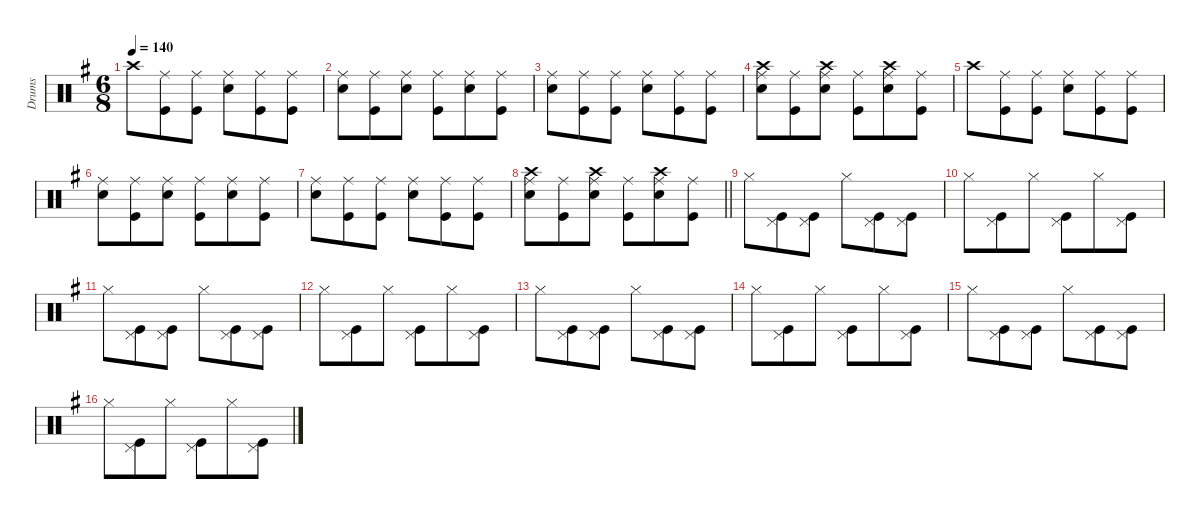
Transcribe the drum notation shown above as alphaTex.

\defaultSystemsLayout 8
\hideDynamics
\bracketExtendMode groupsimilarinstruments
\firstSystemTrackNameMode fullname
\otherSystemsTrackNameOrientation horizontal
\track ("Drums" "drm.") {defaultSystemsLayout 4 instrument percussion}
\staff {score}
\articulation defaults
\ts (6 8)
\tempo 140
\clef neutral
\ks g "Crash high (hit)"{acc forcenatural}.8{dy ff beam Down}
("Ride (middle)"{acc forcenatural} "Kick (hit)"{acc forcenatural}).8{beam Down} ("Ride (middle)"{acc forcenatural} "Kick (hit)"{acc forcenatural}).8{beam Down} ("Ride (middle)"{acc forcenatural} "Snare (hit) 2"{acc forcenatural}).8{beam Down} ("Ride (middle)"{acc forcenatural} "Kick (hit)"{acc forcenatural}).8{beam Down} ("Ride (middle)"{acc forcenatural} "Kick (hit)"{acc forcenatural}).8{beam Down} |
("Ride (middle)"{acc forcenatural} "Snare (hit) 2"{acc forcenatural}).8{beam Down} ("Ride (middle)"{acc forcenatural} "Kick (hit)"{acc forcenatural}).8{beam Down} ("Ride (middle)"{acc forcenatural} "Snare (hit) 2"{acc forcenatural}).8{beam Down} ("Ride (middle)"{acc forcenatural} "Kick (hit)"{acc forcenatural}).8{beam Down} ("Ride (middle)"{acc forcenatural} "Snare (hit) 2"{acc forcenatural}).8{beam Down} ("Ride (middle)"{acc forcenatural} "Kick (hit)"{acc forcenatural}).8{beam Down} |
("Ride (middle)"{acc forcenatural} "Snare (hit) 2"{acc forcenatural}).8{beam Down} ("Ride (middle)"{acc forcenatural} "Kick (hit)"{acc forcenatural}).8{beam Down} ("Ride (middle)"{acc forcenatural} "Kick (hit)"{acc forcenatural}).8{beam Down} ("Ride (middle)"{acc forcenatural} "Snare (hit) 2"{acc forcenatural}).8{beam Down} ("Ride (middle)"{acc forcenatural} "Kick (hit)"{acc forcenatural}).8{beam Down} ("Ride (middle)"{acc forcenatural} "Kick (hit)"{acc forcenatural}).8{beam Down} |
("Crash high (hit)"{acc forcenatural} "Ride (middle)"{acc forcenatural} "Snare (hit) 2"{acc forcenatural}).8{beam Down} ("Ride (middle)"{acc forcenatural} "Kick (hit)"{acc forcenatural}).8{beam Down} ("Crash high (hit)"{acc forcenatural} "Ride (middle)"{acc forcenatural} "Snare (hit) 2"{acc forcenatural}).8{beam Down} ("Ride (middle)"{acc forcenatural} "Kick (hit)"{acc forcenatural}).8{beam Down} ("Crash high (hit)"{acc forcenatural} "Ride (middle)"{acc forcenatural} "Snare (hit) 2"{acc forcenatural}).8{beam Down} ("Ride (middle)"{acc forcenatural} "Kick (hit)"{acc forcenatural}).8{beam Down} |
"Crash high (hit)"{acc forcenatural}.8{beam Down} ("Ride (middle)"{acc forcenatural} "Kick (hit)"{acc forcenatural}).8{beam Down} ("Ride (middle)"{acc forcenatural} "Kick (hit)"{acc forcenatural}).8{beam Down} ("Ride (middle)"{acc forcenatural} "Snare (hit) 2"{acc forcenatural}).8{beam Down} ("Ride (middle)"{acc forcenatural} "Kick (hit)"{acc forcenatural}).8{beam Down} ("Ride (middle)"{acc forcenatural} "Kick (hit)"{acc forcenatural}).8{beam Down} |
("Ride (middle)"{acc forcenatural} "Snare (hit) 2"{acc forcenatural}).8{beam Down} ("Ride (middle)"{acc forcenatural} "Kick (hit)"{acc forcenatural}).8{beam Down} ("Ride (middle)"{acc forcenatural} "Snare (hit) 2"{acc forcenatural}).8{beam Down} ("Ride (middle)"{acc forcenatural} "Kick (hit)"{acc forcenatural}).8{beam Down} ("Ride (middle)"{acc forcenatural} "Snare (hit) 2"{acc forcenatural}).8{beam Down} ("Ride (middle)"{acc forcenatural} "Kick (hit)"{acc forcenatural}).8{beam Down} |
("Ride (middle)"{acc forcenatural} "Snare (hit) 2"{acc forcenatural}).8{beam Down} ("Ride (middle)"{acc forcenatural} "Kick (hit)"{acc forcenatural}).8{beam Down} ("Ride (middle)"{acc forcenatural} "Kick (hit)"{acc forcenatural}).8{beam Down} ("Ride (middle)"{acc forcenatural} "Snare (hit) 2"{acc forcenatural}).8{beam Down} ("Ride (middle)"{acc forcenatural} "Kick (hit)"{acc forcenatural}).8{beam Down} ("Ride (middle)"{acc forcenatural} "Kick (hit)"{acc forcenatural}).8{beam Down} |
\barLineRight lightlight
("Crash high (hit)"{acc forcenatural} "Ride (middle)"{acc forcenatural} "Snare (hit) 2"{acc forcenatural}).8{beam Down} ("Ride (middle)"{acc forcenatural} "Kick (hit)"{acc forcenatural}).8{beam Down} ("Crash high (hit)"{acc forcenatural} "Ride (middle)"{acc forcenatural} "Snare (hit) 2"{acc forcenatural}).8{beam Down} ("Ride (middle)"{acc forcenatural} "Kick (hit)"{acc forcenatural}).8{beam Down} ("Crash high (hit)"{acc forcenatural} "Ride (middle)"{acc forcenatural} "Snare (hit) 2"{acc forcenatural}).8{beam Down} ("Ride (middle)"{acc forcenatural} "Kick (hit)"{acc forcenatural}).8{beam Down} |
"Hi-Hat (closed)"{acc forcenatural}.8{dy f beam Down} ("Pedal Hi-Hat (hit)"{acc forcenatural} "Kick (hit)"{acc forcenatural}).8{beam Down} ("Pedal Hi-Hat (hit)"{acc forcenatural} "Kick (hit)"{acc forcenatural}).8{beam Down} "Hi-Hat (closed)"{acc forcenatural}.8{beam Down} ("Pedal Hi-Hat (hit)"{acc forcenatural} "Kick (hit)"{acc forcenatural}).8{beam Down} ("Pedal Hi-Hat (hit)"{acc forcenatural} "Kick (hit)"{acc forcenatural}).8{beam Down} |
"Hi-Hat (closed)"{acc forcenatural}.8{beam Down} ("Pedal Hi-Hat (hit)"{acc forcenatural} "Kick (hit)"{acc forcenatural}).8{beam Down} "Hi-Hat (closed)"{acc forcenatural}.8{beam Down} ("Pedal Hi-Hat (hit)"{acc forcenatural} "Kick (hit)"{acc forcenatural}).8{beam Down} "Hi-Hat (closed)"{acc forcenatural}.8{beam Down} ("Pedal Hi-Hat (hit)"{acc forcenatural} "Kick (hit)"{acc forcenatural}).8{beam Down} |
"Hi-Hat (closed)"{acc forcenatural}.8{beam Down} ("Pedal Hi-Hat (hit)"{acc forcenatural} "Kick (hit)"{acc forcenatural}).8{beam Down} ("Pedal Hi-Hat (hit)"{acc forcenatural} "Kick (hit)"{acc forcenatural}).8{beam Down} "Hi-Hat (closed)"{acc forcenatural}.8{beam Down} ("Pedal Hi-Hat (hit)"{acc forcenatural} "Kick (hit)"{acc forcenatural}).8{beam Down} ("Pedal Hi-Hat (hit)"{acc forcenatural} "Kick (hit)"{acc forcenatural}).8{beam Down} |
"Hi-Hat (closed)"{acc forcenatural}.8{beam Down} ("Pedal Hi-Hat (hit)"{acc forcenatural} "Kick (hit)"{acc forcenatural}).8{beam Down} "Hi-Hat (closed)"{acc forcenatural}.8{beam Down} ("Pedal Hi-Hat (hit)"{acc forcenatural} "Kick (hit)"{acc forcenatural}).8{beam Down} "Hi-Hat (closed)"{acc forcenatural}.8{beam Down} ("Pedal Hi-Hat (hit)"{acc forcenatural} "Kick (hit)"{acc forcenatural}).8{beam Down} |
"Hi-Hat (closed)"{acc forcenatural}.8{beam Down} ("Pedal Hi-Hat (hit)"{acc forcenatural} "Kick (hit)"{acc forcenatural}).8{beam Down} ("Pedal Hi-Hat (hit)"{acc forcenatural} "Kick (hit)"{acc forcenatural}).8{beam Down} "Hi-Hat (closed)"{acc forcenatural}.8{beam Down} ("Pedal Hi-Hat (hit)"{acc forcenatural} "Kick (hit)"{acc forcenatural}).8{beam Down} ("Pedal Hi-Hat (hit)"{acc forcenatural} "Kick (hit)"{acc forcenatural}).8{beam Down} |
"Hi-Hat (closed)"{acc forcenatural}.8{beam Down} ("Pedal Hi-Hat (hit)"{acc forcenatural} "Kick (hit)"{acc forcenatural}).8{beam Down} "Hi-Hat (closed)"{acc forcenatural}.8{beam Down} ("Pedal Hi-Hat (hit)"{acc forcenatural} "Kick (hit)"{acc forcenatural}).8{beam Down} "Hi-Hat (closed)"{acc forcenatural}.8{beam Down} ("Pedal Hi-Hat (hit)"{acc forcenatural} "Kick (hit)"{acc forcenatural}).8{beam Down} |
"Hi-Hat (closed)"{acc forcenatural}.8{beam Down} ("Pedal Hi-Hat (hit)"{acc forcenatural} "Kick (hit)"{acc forcenatural}).8{beam Down} ("Pedal Hi-Hat (hit)"{acc forcenatural} "Kick (hit)"{acc forcenatural}).8{beam Down} "Hi-Hat (closed)"{acc forcenatural}.8{beam Down} ("Pedal Hi-Hat (hit)"{acc forcenatural} "Kick (hit)"{acc forcenatural}).8{beam Down} ("Pedal Hi-Hat (hit)"{acc forcenatural} "Kick (hit)"{acc forcenatural}).8{beam Down} |
"Hi-Hat (closed)"{acc forcenatural}.8{beam Down} ("Pedal Hi-Hat (hit)"{acc forcenatural} "Kick (hit)"{acc forcenatural}).8{beam Down} "Hi-Hat (closed)"{acc forcenatural}.8{beam Down} ("Pedal Hi-Hat (hit)"{acc forcenatural} "Kick (hit)"{acc forcenatural}).8{beam Down} "Hi-Hat (closed)"{acc forcenatural}.8{beam Down} ("Pedal Hi-Hat (hit)"{acc forcenatural} "Kick (hit)"{acc forcenatural}).8{beam Down}
